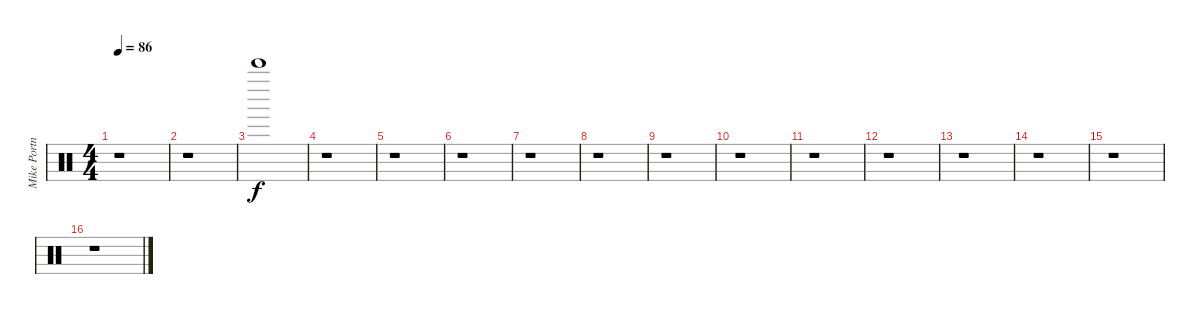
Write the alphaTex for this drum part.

\track ("Mike Portnoy - Drum" "Mike Portn") {instrument percussion}
\staff {score}
\articulation defaults
\ts (4 4)
\tempo 86
\clef neutral
\ks c
r.1{dy f} |
r.1 |
"Bell Tree (hit)".1 |
r.1 |
r.1 |
r.1 |
r.1 |
r.1 |
r.1 |
r.1 |
r.1 |
r.1 |
r.1 |
r.1 |
r.1 |
r.1
